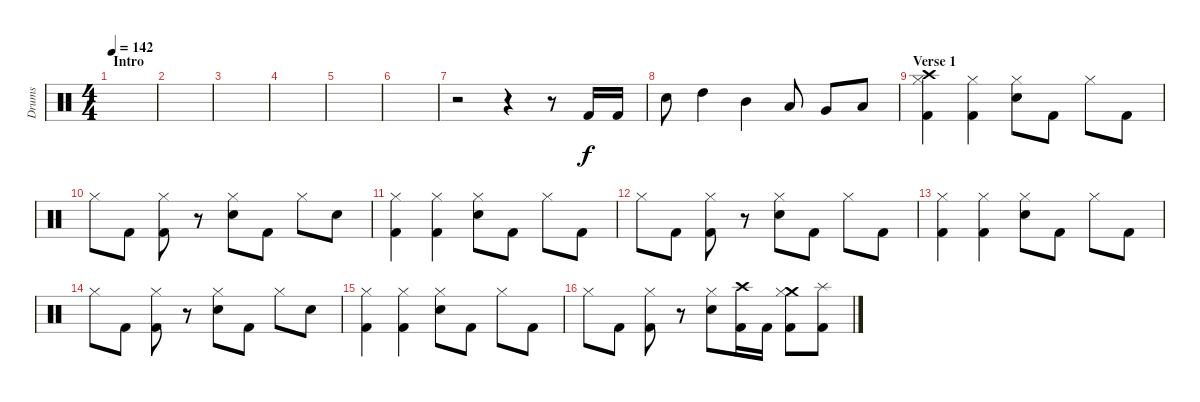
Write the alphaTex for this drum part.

\track ("Drums" "Drums") {instrument percussion}
\staff {score}
\articulation defaults
\ts (4 4)
\section ("" "Intro")
\tempo 142
\clef neutral
\ks c
|
|
|
|
|
|
r.2 r.4 r.8 "Kick (hit) 2".16 "Kick (hit) 2".16 |
"Electric Snare (hit)".8 "High Tom (hit)".4 "Mid Tom (hit)".4 "Low Tom (hit)".8 "Very Low Tom (hit)".8 "Low Floor Tom (hit)".8 |
\section ("" "Verse 1")
("Crash high (hit)" "Hi-Hat (closed)" "Kick (hit) 2").4 ("Hi-Hat (closed)" "Kick (hit) 2").4 ("Hi-Hat (closed)" "Electric Snare (hit)").8 "Kick (hit) 2".8 "Hi-Hat (closed)".8 "Kick (hit) 2".8 |
"Hi-Hat (closed)".8 "Kick (hit) 2".8 ("Hi-Hat (closed)" "Kick (hit) 2").8 r.8 ("Hi-Hat (closed)" "Electric Snare (hit)").8 "Kick (hit) 2".8 "Hi-Hat (closed)".8 "Electric Snare (hit)".8 |
("Hi-Hat (closed)" "Kick (hit) 2").4 ("Hi-Hat (closed)" "Kick (hit) 2").4 ("Hi-Hat (closed)" "Electric Snare (hit)").8 "Kick (hit) 2".8 "Hi-Hat (closed)".8 "Kick (hit) 2".8 |
"Hi-Hat (closed)".8 "Kick (hit) 2".8 ("Hi-Hat (closed)" "Kick (hit) 2").8 r.8 ("Hi-Hat (closed)" "Electric Snare (hit)").8 "Kick (hit) 2".8 "Hi-Hat (closed)".8 "Kick (hit) 2".8 |
("Hi-Hat (closed)" "Kick (hit) 2").4 ("Hi-Hat (closed)" "Kick (hit) 2").4 ("Hi-Hat (closed)" "Electric Snare (hit)").8 "Kick (hit) 2".8 "Hi-Hat (closed)".8 "Kick (hit) 2".8 |
"Hi-Hat (closed)".8 "Kick (hit) 2".8 ("Hi-Hat (closed)" "Kick (hit) 2").8 r.8 ("Hi-Hat (closed)" "Electric Snare (hit)").8 "Kick (hit) 2".8 "Hi-Hat (closed)".8 "Electric Snare (hit)".8 |
("Hi-Hat (closed)" "Kick (hit) 2").4 ("Hi-Hat (closed)" "Kick (hit) 2").4 ("Hi-Hat (closed)" "Electric Snare (hit)").8 "Kick (hit) 2".8 "Hi-Hat (closed)".8 "Kick (hit) 2".8 |
"Hi-Hat (closed)".8 "Kick (hit) 2".8 ("Hi-Hat (closed)" "Kick (hit) 2").8 r.8 ("Hi-Hat (closed)" "Electric Snare (hit)").8 ("Crash high (hit)" "Kick (hit) 2").16 "Kick (hit) 2".16 ("Crash medium (hit)" "Hi-Hat (closed)" "Kick (hit) 2").8 ("Splash (hit)" "Kick (hit) 2").8
